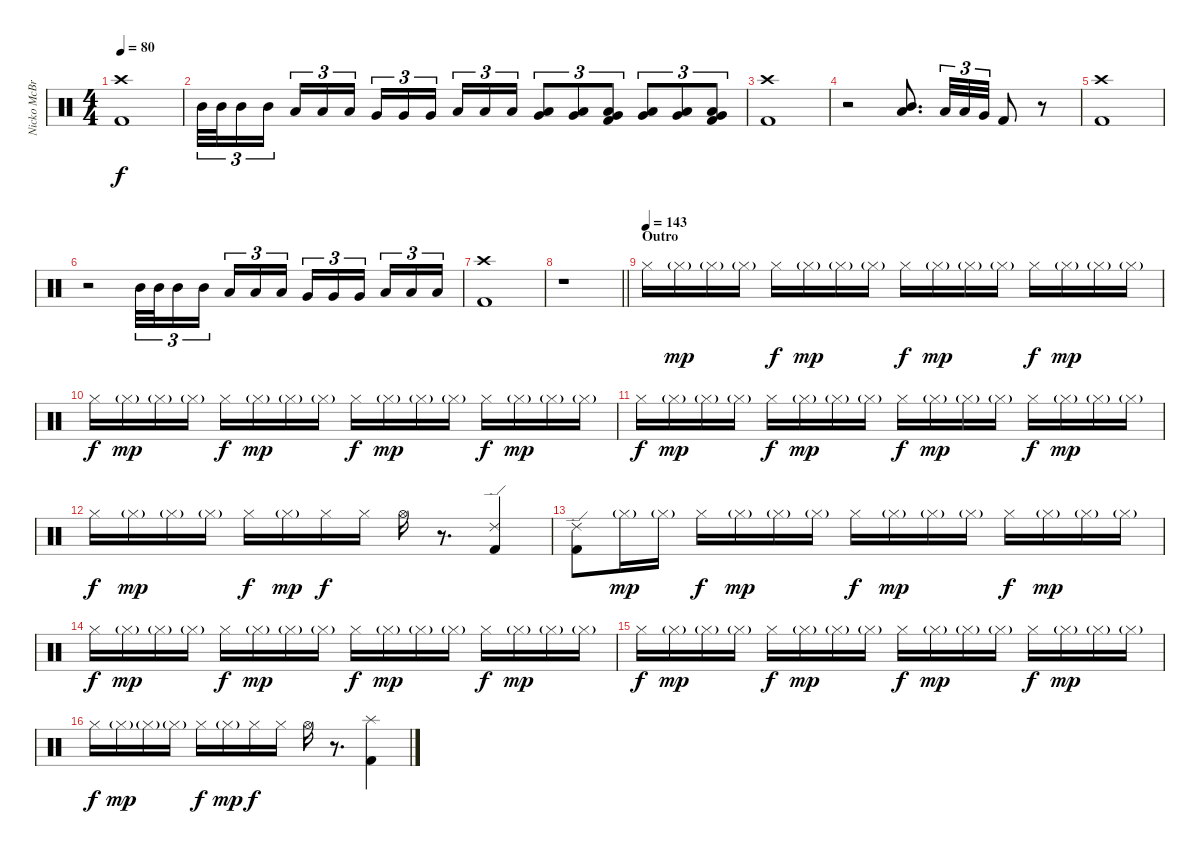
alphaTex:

\track ("Nicko McBrian" "Nicko McBr") {instrument percussion}
\staff {score}
\articulation defaults
\ts (4 4)
\tempo 80
\clef neutral
\ks c
("Crash high (hit)" "Kick (hit) 2").1{dy f} |
"Mid Tom (hit)".32{tu (3 2)} "Mid Tom (hit)".32{tu (3 2)} "Mid Tom (hit)".16{tu (3 2)} "Mid Tom (hit)".16{tu (3 2) beam splitsecondary} "Low Tom (hit)".16{tu (3 2)} "Low Tom (hit)".16{tu (3 2)} "Low Tom (hit)".16{tu (3 2)} "Very Low Tom (hit)".16{tu (3 2)} "Very Low Tom (hit)".16{tu (3 2)} "Very Low Tom (hit)".16{tu (3 2) beam splitsecondary} "Low Floor Tom (hit)".16{tu (3 2)} "Low Floor Tom (hit)".16{tu (3 2)} "Low Floor Tom (hit)".16{tu (3 2)} ("Low Tom (hit)" "Very Low Tom (hit)").8{tu (3 2)} ("Low Tom (hit)" "Very Low Tom (hit)").8{tu (3 2)} ("Very Low Tom (hit)" "Low Floor Tom (hit)" "Kick (hit) 2").8{tu (3 2)} ("Low Tom (hit)" "Very Low Tom (hit)").8{tu (3 2)} ("Low Tom (hit)" "Very Low Tom (hit)").8{tu (3 2)} ("Very Low Tom (hit)" "Low Floor Tom (hit)" "Kick (hit) 2").8{tu (3 2)} |
("Crash high (hit)" "Kick (hit) 2").1 |
r.2 ("Mid Tom (hit)" "Low Tom (hit)").8{d} "Low Tom (hit)".32{tu (3 2)} "Low Tom (hit)".32{tu (3 2)} "Very Low Tom (hit)".32{tu (3 2)} "Kick (hit) 2".8 r.8 |
("Crash high (hit)" "Kick (hit) 2").1 |
r.2 "Mid Tom (hit)".32{tu (3 2)} "Mid Tom (hit)".32{tu (3 2)} "Mid Tom (hit)".16{tu (3 2)} "Mid Tom (hit)".16{tu (3 2) beam splitsecondary} "Low Tom (hit)".16{tu (3 2)} "Low Tom (hit)".16{tu (3 2)} "Low Tom (hit)".16{tu (3 2)} "Very Low Tom (hit)".16{tu (3 2)} "Very Low Tom (hit)".16{tu (3 2)} "Very Low Tom (hit)".16{tu (3 2) beam splitsecondary} "Low Floor Tom (hit)".16{tu (3 2)} "Low Floor Tom (hit)".16{tu (3 2)} "Low Floor Tom (hit)".16{tu (3 2)} |
("Crash high (hit)" "Kick (hit) 2").1 |
\barLineRight lightlight
r.1 |
\section ("" "Outro")
\tempo (143)
"Hi-Hat (closed)".16 "Hi-Hat (closed)"{g}.16{dy mp} "Hi-Hat (closed)"{g}.16 "Hi-Hat (closed)"{g}.16 "Hi-Hat (closed)".16{dy f} "Hi-Hat (closed)"{g}.16{dy mp} "Hi-Hat (closed)"{g}.16 "Hi-Hat (closed)"{g}.16 "Hi-Hat (closed)".16{dy f} "Hi-Hat (closed)"{g}.16{dy mp} "Hi-Hat (closed)"{g}.16 "Hi-Hat (closed)"{g}.16 "Hi-Hat (closed)".16{dy f} "Hi-Hat (closed)"{g}.16{dy mp} "Hi-Hat (closed)"{g}.16 "Hi-Hat (closed)"{g}.16 |
"Hi-Hat (closed)".16{dy f} "Hi-Hat (closed)"{g}.16{dy mp} "Hi-Hat (closed)"{g}.16 "Hi-Hat (closed)"{g}.16 "Hi-Hat (closed)".16{dy f} "Hi-Hat (closed)"{g}.16{dy mp} "Hi-Hat (closed)"{g}.16 "Hi-Hat (closed)"{g}.16 "Hi-Hat (closed)".16{dy f} "Hi-Hat (closed)"{g}.16{dy mp} "Hi-Hat (closed)"{g}.16 "Hi-Hat (closed)"{g}.16 "Hi-Hat (closed)".16{dy f} "Hi-Hat (closed)"{g}.16{dy mp} "Hi-Hat (closed)"{g}.16 "Hi-Hat (closed)"{g}.16 |
"Hi-Hat (closed)".16{dy f} "Hi-Hat (closed)"{g}.16{dy mp} "Hi-Hat (closed)"{g}.16 "Hi-Hat (closed)"{g}.16 "Hi-Hat (closed)".16{dy f} "Hi-Hat (closed)"{g}.16{dy mp} "Hi-Hat (closed)"{g}.16 "Hi-Hat (closed)"{g}.16 "Hi-Hat (closed)".16{dy f} "Hi-Hat (closed)"{g}.16{dy mp} "Hi-Hat (closed)"{g}.16 "Hi-Hat (closed)"{g}.16 "Hi-Hat (closed)".16{dy f} "Hi-Hat (closed)"{g}.16{dy mp} "Hi-Hat (closed)"{g}.16 "Hi-Hat (closed)"{g}.16 |
"Hi-Hat (closed)".16{dy f} "Hi-Hat (closed)"{g}.16{dy mp} "Hi-Hat (closed)"{g}.16 "Hi-Hat (closed)"{g}.16 "Hi-Hat (closed)".16{dy f} "Hi-Hat (closed)"{g}.16{dy mp} "Hi-Hat (closed)".16{dy f} "Hi-Hat (closed)".16 "Hi-Hat (open)".16 r.8{d} ("Ride (edge) 2" "Kick (hit) 2").4 |
("Ride (edge) 2" "Kick (hit) 2").8 "Hi-Hat (closed)"{g}.16{dy mp} "Hi-Hat (closed)"{g}.16 "Hi-Hat (closed)".16{dy f} "Hi-Hat (closed)"{g}.16{dy mp} "Hi-Hat (closed)"{g}.16 "Hi-Hat (closed)"{g}.16 "Hi-Hat (closed)".16{dy f} "Hi-Hat (closed)"{g}.16{dy mp} "Hi-Hat (closed)"{g}.16 "Hi-Hat (closed)"{g}.16 "Hi-Hat (closed)".16{dy f} "Hi-Hat (closed)"{g}.16{dy mp} "Hi-Hat (closed)"{g}.16 "Hi-Hat (closed)"{g}.16 |
"Hi-Hat (closed)".16{dy f} "Hi-Hat (closed)"{g}.16{dy mp} "Hi-Hat (closed)"{g}.16 "Hi-Hat (closed)"{g}.16 "Hi-Hat (closed)".16{dy f} "Hi-Hat (closed)"{g}.16{dy mp} "Hi-Hat (closed)"{g}.16 "Hi-Hat (closed)"{g}.16 "Hi-Hat (closed)".16{dy f} "Hi-Hat (closed)"{g}.16{dy mp} "Hi-Hat (closed)"{g}.16 "Hi-Hat (closed)"{g}.16 "Hi-Hat (closed)".16{dy f} "Hi-Hat (closed)"{g}.16{dy mp} "Hi-Hat (closed)"{g}.16 "Hi-Hat (closed)"{g}.16 |
"Hi-Hat (closed)".16{dy f} "Hi-Hat (closed)"{g}.16{dy mp} "Hi-Hat (closed)"{g}.16 "Hi-Hat (closed)"{g}.16 "Hi-Hat (closed)".16{dy f} "Hi-Hat (closed)"{g}.16{dy mp} "Hi-Hat (closed)"{g}.16 "Hi-Hat (closed)"{g}.16 "Hi-Hat (closed)".16{dy f} "Hi-Hat (closed)"{g}.16{dy mp} "Hi-Hat (closed)"{g}.16 "Hi-Hat (closed)"{g}.16 "Hi-Hat (closed)".16{dy f} "Hi-Hat (closed)"{g}.16{dy mp} "Hi-Hat (closed)"{g}.16 "Hi-Hat (closed)"{g}.16 |
"Hi-Hat (closed)".16{dy f} "Hi-Hat (closed)"{g}.16{dy mp} "Hi-Hat (closed)"{g}.16 "Hi-Hat (closed)"{g}.16 "Hi-Hat (closed)".16{dy f} "Hi-Hat (closed)"{g}.16{dy mp} "Hi-Hat (closed)".16{dy f} "Hi-Hat (closed)".16 "Hi-Hat (open)".16 r.8{d} ("Splash (hit)" "Kick (hit) 2").4
